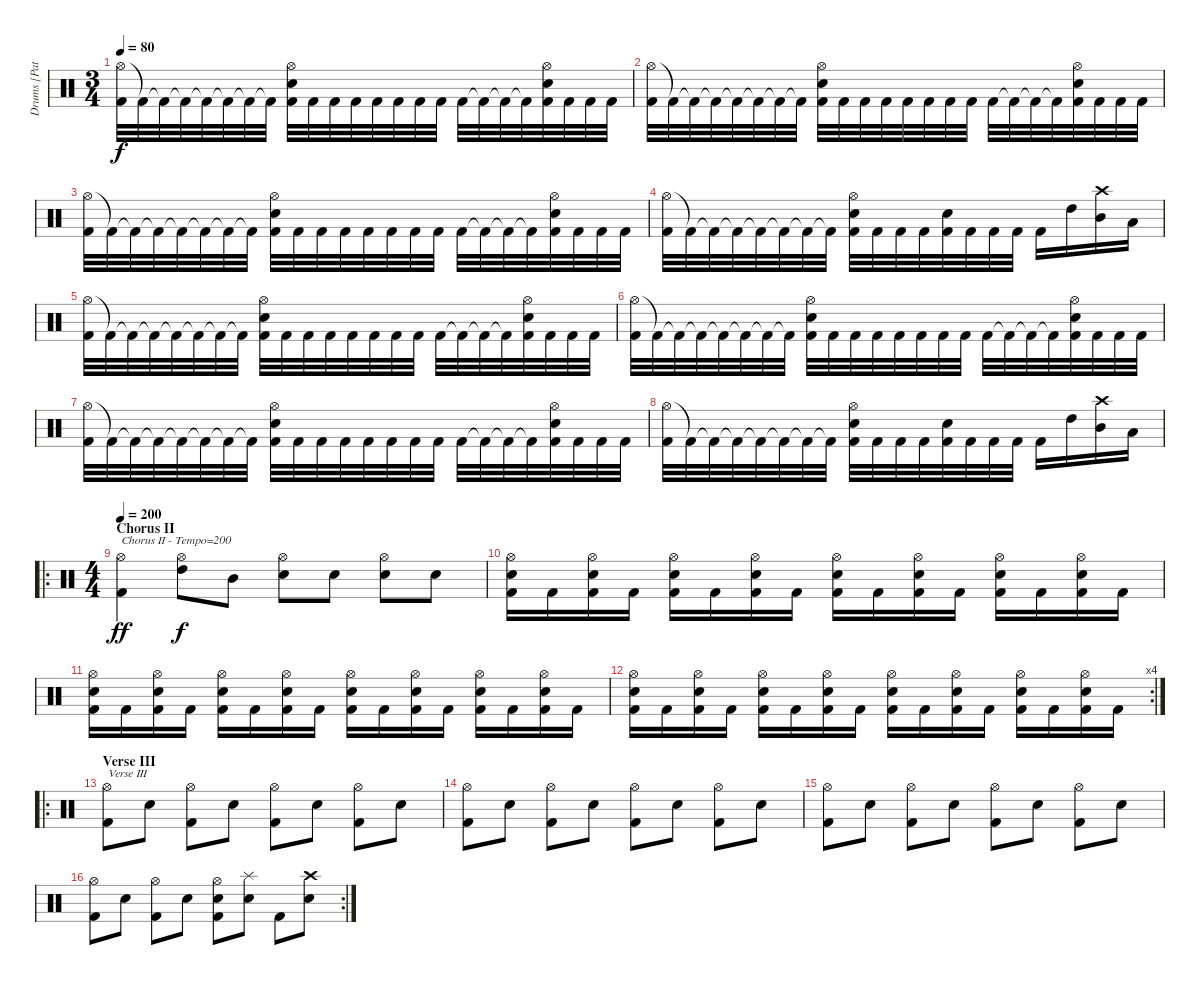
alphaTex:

\track ("Drums [Patrick Robert]" "Drums [Pat") {instrument percussion}
\staff {score}
\articulation defaults
\ts (3 4)
\tempo 80
\clef neutral
\ks c
("Hi-Hat (open)" "Kick (hit) 2").32{dy f} "Kick (hit) 2"{t}.32 "Kick (hit) 2"{t}.32 "Kick (hit) 2"{t}.32 "Kick (hit) 2"{t}.32 "Kick (hit) 2"{t}.32 "Kick (hit) 2"{t}.32 "Kick (hit) 2"{t}.32 ("Hi-Hat (open)" "Electric Snare (hit)" "Kick (hit) 2").32 "Kick (hit) 2".32 "Kick (hit) 2".32 "Kick (hit) 2".32 "Kick (hit) 2".32 "Kick (hit) 2".32 "Kick (hit) 2".32 "Kick (hit) 2".32 "Kick (hit) 2".32 "Kick (hit) 2"{t}.32 "Kick (hit) 2"{t}.32 "Kick (hit) 2"{t}.32 ("Hi-Hat (open)" "Electric Snare (hit)" "Kick (hit) 2").32 "Kick (hit) 2".32 "Kick (hit) 2".32 "Kick (hit) 2".32 |
("Hi-Hat (open)" "Kick (hit) 2").32 "Kick (hit) 2"{t}.32 "Kick (hit) 2"{t}.32 "Kick (hit) 2"{t}.32 "Kick (hit) 2"{t}.32 "Kick (hit) 2"{t}.32 "Kick (hit) 2"{t}.32 "Kick (hit) 2"{t}.32 ("Hi-Hat (open)" "Electric Snare (hit)" "Kick (hit) 2").32 "Kick (hit) 2".32 "Kick (hit) 2".32 "Kick (hit) 2".32 "Kick (hit) 2".32 "Kick (hit) 2".32 "Kick (hit) 2".32 "Kick (hit) 2".32 "Kick (hit) 2".32 "Kick (hit) 2"{t}.32 "Kick (hit) 2"{t}.32 "Kick (hit) 2"{t}.32 ("Hi-Hat (open)" "Electric Snare (hit)" "Kick (hit) 2").32 "Kick (hit) 2".32 "Kick (hit) 2".32 "Kick (hit) 2".32 |
("Hi-Hat (open)" "Kick (hit) 2").32 "Kick (hit) 2"{t}.32 "Kick (hit) 2"{t}.32 "Kick (hit) 2"{t}.32 "Kick (hit) 2"{t}.32 "Kick (hit) 2"{t}.32 "Kick (hit) 2"{t}.32 "Kick (hit) 2"{t}.32 ("Hi-Hat (open)" "Electric Snare (hit)" "Kick (hit) 2").32 "Kick (hit) 2".32 "Kick (hit) 2".32 "Kick (hit) 2".32 "Kick (hit) 2".32 "Kick (hit) 2".32 "Kick (hit) 2".32 "Kick (hit) 2".32 "Kick (hit) 2".32 "Kick (hit) 2"{t}.32 "Kick (hit) 2"{t}.32 "Kick (hit) 2"{t}.32 ("Hi-Hat (open)" "Electric Snare (hit)" "Kick (hit) 2").32 "Kick (hit) 2".32 "Kick (hit) 2".32 "Kick (hit) 2".32 |
("Hi-Hat (open)" "Kick (hit) 2").32 "Kick (hit) 2"{t}.32 "Kick (hit) 2"{t}.32 "Kick (hit) 2"{t}.32 "Kick (hit) 2"{t}.32 "Kick (hit) 2"{t}.32 "Kick (hit) 2"{t}.32 "Kick (hit) 2"{t}.32 ("Hi-Hat (open)" "Electric Snare (hit)" "Kick (hit) 2").32 "Kick (hit) 2".32 "Kick (hit) 2".32 "Kick (hit) 2".32 ("Electric Snare (hit)" "Kick (hit) 2").32 "Kick (hit) 2".32 "Kick (hit) 2".32 "Kick (hit) 2".32 "Kick (hit) 2".16 "High Tom (hit)".16 ("Crash high (hit)" "Mid Tom (hit)").16 "Low Tom (hit)".16 |
("Hi-Hat (open)" "Kick (hit) 2").32 "Kick (hit) 2"{t}.32 "Kick (hit) 2"{t}.32 "Kick (hit) 2"{t}.32 "Kick (hit) 2"{t}.32 "Kick (hit) 2"{t}.32 "Kick (hit) 2"{t}.32 "Kick (hit) 2"{t}.32 ("Hi-Hat (open)" "Electric Snare (hit)" "Kick (hit) 2").32 "Kick (hit) 2".32 "Kick (hit) 2".32 "Kick (hit) 2".32 "Kick (hit) 2".32 "Kick (hit) 2".32 "Kick (hit) 2".32 "Kick (hit) 2".32 "Kick (hit) 2".32 "Kick (hit) 2"{t}.32 "Kick (hit) 2"{t}.32 "Kick (hit) 2"{t}.32 ("Hi-Hat (open)" "Electric Snare (hit)" "Kick (hit) 2").32 "Kick (hit) 2".32 "Kick (hit) 2".32 "Kick (hit) 2".32 |
("Hi-Hat (open)" "Kick (hit) 2").32 "Kick (hit) 2"{t}.32 "Kick (hit) 2"{t}.32 "Kick (hit) 2"{t}.32 "Kick (hit) 2"{t}.32 "Kick (hit) 2"{t}.32 "Kick (hit) 2"{t}.32 "Kick (hit) 2"{t}.32 ("Hi-Hat (open)" "Electric Snare (hit)" "Kick (hit) 2").32 "Kick (hit) 2".32 "Kick (hit) 2".32 "Kick (hit) 2".32 "Kick (hit) 2".32 "Kick (hit) 2".32 "Kick (hit) 2".32 "Kick (hit) 2".32 "Kick (hit) 2".32 "Kick (hit) 2"{t}.32 "Kick (hit) 2"{t}.32 "Kick (hit) 2"{t}.32 ("Hi-Hat (open)" "Electric Snare (hit)" "Kick (hit) 2").32 "Kick (hit) 2".32 "Kick (hit) 2".32 "Kick (hit) 2".32 |
("Hi-Hat (open)" "Kick (hit) 2").32 "Kick (hit) 2"{t}.32 "Kick (hit) 2"{t}.32 "Kick (hit) 2"{t}.32 "Kick (hit) 2"{t}.32 "Kick (hit) 2"{t}.32 "Kick (hit) 2"{t}.32 "Kick (hit) 2"{t}.32 ("Hi-Hat (open)" "Electric Snare (hit)" "Kick (hit) 2").32 "Kick (hit) 2".32 "Kick (hit) 2".32 "Kick (hit) 2".32 "Kick (hit) 2".32 "Kick (hit) 2".32 "Kick (hit) 2".32 "Kick (hit) 2".32 "Kick (hit) 2".32 "Kick (hit) 2"{t}.32 "Kick (hit) 2"{t}.32 "Kick (hit) 2"{t}.32 ("Hi-Hat (open)" "Electric Snare (hit)" "Kick (hit) 2").32 "Kick (hit) 2".32 "Kick (hit) 2".32 "Kick (hit) 2".32 |
("Hi-Hat (open)" "Kick (hit) 2").32 "Kick (hit) 2"{t}.32 "Kick (hit) 2"{t}.32 "Kick (hit) 2"{t}.32 "Kick (hit) 2"{t}.32 "Kick (hit) 2"{t}.32 "Kick (hit) 2"{t}.32 "Kick (hit) 2"{t}.32 ("Hi-Hat (open)" "Electric Snare (hit)" "Kick (hit) 2").32 "Kick (hit) 2".32 "Kick (hit) 2".32 "Kick (hit) 2".32 ("Electric Snare (hit)" "Kick (hit) 2").32 "Kick (hit) 2".32 "Kick (hit) 2".32 "Kick (hit) 2".32 "Kick (hit) 2".16 "High Tom (hit)".16 ("Crash high (hit)" "Mid Tom (hit)").16 "Low Tom (hit)".16 |
\ro
\ts (4 4)
\section ("" "Chorus II")
\tempo 200
("Hi-Hat (open)" "Kick (hit) 2").4{txt "Chorus II - Tempo=200" dy ff} ("Hi-Hat (open)" "High Tom (hit)").8{dy f} "Mid Tom (hit)".8 ("Hi-Hat (open)" "Electric Snare (hit)").8 "Electric Snare (hit)".8 ("Hi-Hat (open)" "Electric Snare (hit)").8 "Electric Snare (hit)".8 |
("Hi-Hat (open)" "Electric Snare (hit)" "Kick (hit) 2").16 "Kick (hit) 2".16 ("Hi-Hat (open)" "Electric Snare (hit)" "Kick (hit) 2").16 "Kick (hit) 2".16 ("Hi-Hat (open)" "Electric Snare (hit)" "Kick (hit) 2").16 "Kick (hit) 2".16 ("Hi-Hat (open)" "Electric Snare (hit)" "Kick (hit) 2").16 "Kick (hit) 2".16 ("Hi-Hat (open)" "Electric Snare (hit)" "Kick (hit) 2").16 "Kick (hit) 2".16 ("Hi-Hat (open)" "Electric Snare (hit)" "Kick (hit) 2").16 "Kick (hit) 2".16 ("Hi-Hat (open)" "Electric Snare (hit)" "Kick (hit) 2").16 "Kick (hit) 2".16 ("Hi-Hat (open)" "Electric Snare (hit)" "Kick (hit) 2").16 "Kick (hit) 2".16 |
("Hi-Hat (open)" "Electric Snare (hit)" "Kick (hit) 2").16 "Kick (hit) 2".16 ("Hi-Hat (open)" "Electric Snare (hit)" "Kick (hit) 2").16 "Kick (hit) 2".16 ("Hi-Hat (open)" "Electric Snare (hit)" "Kick (hit) 2").16 "Kick (hit) 2".16 ("Hi-Hat (open)" "Electric Snare (hit)" "Kick (hit) 2").16 "Kick (hit) 2".16 ("Hi-Hat (open)" "Electric Snare (hit)" "Kick (hit) 2").16 "Kick (hit) 2".16 ("Hi-Hat (open)" "Electric Snare (hit)" "Kick (hit) 2").16 "Kick (hit) 2".16 ("Hi-Hat (open)" "Electric Snare (hit)" "Kick (hit) 2").16 "Kick (hit) 2".16 ("Hi-Hat (open)" "Electric Snare (hit)" "Kick (hit) 2").16 "Kick (hit) 2".16 |
\rc 4
("Hi-Hat (open)" "Electric Snare (hit)" "Kick (hit) 2").16 "Kick (hit) 2".16 ("Hi-Hat (open)" "Electric Snare (hit)" "Kick (hit) 2").16 "Kick (hit) 2".16 ("Hi-Hat (open)" "Electric Snare (hit)" "Kick (hit) 2").16 "Kick (hit) 2".16 ("Hi-Hat (open)" "Electric Snare (hit)" "Kick (hit) 2").16 "Kick (hit) 2".16 ("Hi-Hat (open)" "Electric Snare (hit)" "Kick (hit) 2").16 "Kick (hit) 2".16 ("Hi-Hat (open)" "Electric Snare (hit)" "Kick (hit) 2").16 "Kick (hit) 2".16 ("Hi-Hat (open)" "Electric Snare (hit)" "Kick (hit) 2").16 "Kick (hit) 2".16 ("Hi-Hat (open)" "Electric Snare (hit)" "Kick (hit) 2").16 "Kick (hit) 2".16 |
\ro
\section ("" "Verse III")
("Hi-Hat (open)" "Kick (hit) 2").8{txt "Verse III"} "Electric Snare (hit)".8 ("Hi-Hat (open)" "Kick (hit) 2").8 "Electric Snare (hit)".8 ("Hi-Hat (open)" "Kick (hit) 2").8 "Electric Snare (hit)".8 ("Hi-Hat (open)" "Kick (hit) 2").8 "Electric Snare (hit)".8 |
("Hi-Hat (open)" "Kick (hit) 2").8 "Electric Snare (hit)".8 ("Hi-Hat (open)" "Kick (hit) 2").8 "Electric Snare (hit)".8 ("Hi-Hat (open)" "Kick (hit) 2").8 "Electric Snare (hit)".8 ("Hi-Hat (open)" "Kick (hit) 2").8 "Electric Snare (hit)".8 |
("Hi-Hat (open)" "Kick (hit) 2").8 "Electric Snare (hit)".8 ("Hi-Hat (open)" "Kick (hit) 2").8 "Electric Snare (hit)".8 ("Hi-Hat (open)" "Kick (hit) 2").8 "Electric Snare (hit)".8 ("Hi-Hat (open)" "Kick (hit) 2").8 "Electric Snare (hit)".8 |
\rc 2
("Hi-Hat (open)" "Kick (hit) 2").8 "Electric Snare (hit)".8 ("Hi-Hat (open)" "Kick (hit) 2").8 "Electric Snare (hit)".8 ("Hi-Hat (open)" "Electric Snare (hit)" "Kick (hit) 2").8 ("Splash (hit)" "Electric Snare (hit)").8 "Kick (hit) 2".8 ("Crash high (hit)" "Electric Snare (hit)").8
